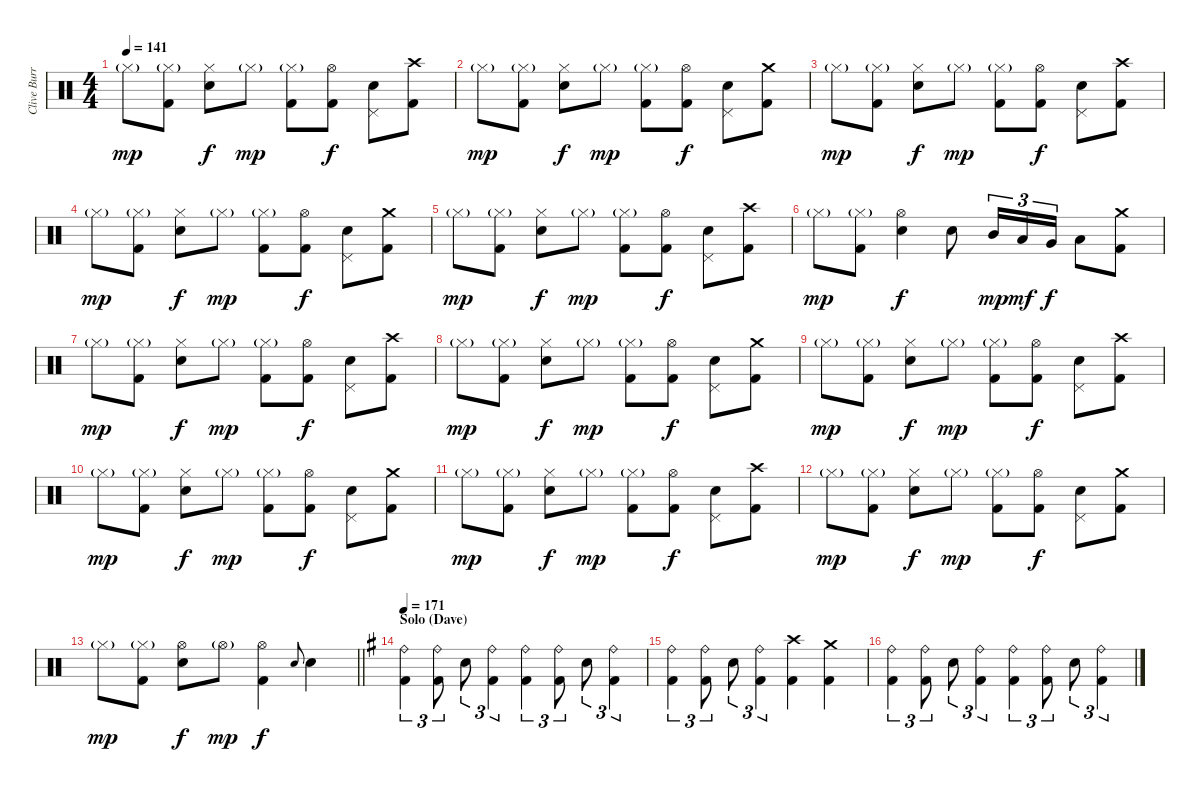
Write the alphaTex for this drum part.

\track ("Clive Burr" "Clive Burr") {instrument percussion}
\staff {score}
\articulation defaults
\ts (4 4)
\tempo 141
\clef neutral
\ks c "Hi-Hat (closed)"{g}.8{dy mp}
("Hi-Hat (closed)"{g} "Kick (hit) 2").8 ("Hi-Hat (closed)" "Snare (hit) 2").8{dy f} "Hi-Hat (closed)"{g}.8{dy mp} ("Hi-Hat (closed)"{g} "Kick (hit) 2").8 ("Hi-Hat (open)" "Kick (hit) 2").8{dy f} ("Pedal Hi-Hat (hit)" "Snare (hit) 2").8 ("Crash high (hit)" "Kick (hit) 2").8 |
"Hi-Hat (closed)"{g}.8{dy mp} ("Hi-Hat (closed)"{g} "Kick (hit) 2").8 ("Hi-Hat (closed)" "Snare (hit) 2").8{dy f} "Hi-Hat (closed)"{g}.8{dy mp} ("Hi-Hat (closed)"{g} "Kick (hit) 2").8 ("Hi-Hat (open)" "Kick (hit) 2").8{dy f} ("Pedal Hi-Hat (hit)" "Snare (hit) 2").8 ("Crash medium (hit)" "Kick (hit) 2").8 |
"Hi-Hat (closed)"{g}.8{dy mp} ("Hi-Hat (closed)"{g} "Kick (hit) 2").8 ("Hi-Hat (closed)" "Snare (hit) 2").8{dy f} "Hi-Hat (closed)"{g}.8{dy mp} ("Hi-Hat (closed)"{g} "Kick (hit) 2").8 ("Hi-Hat (open)" "Kick (hit) 2").8{dy f} ("Pedal Hi-Hat (hit)" "Snare (hit) 2").8 ("Crash high (hit)" "Kick (hit) 2").8 |
"Hi-Hat (closed)"{g}.8{dy mp} ("Hi-Hat (closed)"{g} "Kick (hit) 2").8 ("Hi-Hat (closed)" "Snare (hit) 2").8{dy f} "Hi-Hat (closed)"{g}.8{dy mp} ("Hi-Hat (closed)"{g} "Kick (hit) 2").8 ("Hi-Hat (open)" "Kick (hit) 2").8{dy f} ("Pedal Hi-Hat (hit)" "Snare (hit) 2").8 ("Crash medium (hit)" "Kick (hit) 2").8 |
"Hi-Hat (closed)"{g}.8{dy mp} ("Hi-Hat (closed)"{g} "Kick (hit) 2").8 ("Hi-Hat (closed)" "Snare (hit) 2").8{dy f} "Hi-Hat (closed)"{g}.8{dy mp} ("Hi-Hat (closed)"{g} "Kick (hit) 2").8 ("Hi-Hat (open)" "Kick (hit) 2").8{dy f} ("Pedal Hi-Hat (hit)" "Snare (hit) 2").8 ("Crash high (hit)" "Kick (hit) 2").8 |
"Hi-Hat (closed)"{g}.8{dy mp} ("Hi-Hat (closed)"{g} "Kick (hit) 2").8 ("Hi-Hat (open)" "Snare (hit) 2").4{dy f} "Snare (hit) 2".8 "Mid Tom (hit)".16{tu (3 2) dy mp} "Low Tom (hit)".16{tu (3 2) dy mf} "Very Low Tom (hit)".16{tu (3 2) dy f} "Low Floor Tom (hit)".8 ("Crash medium (hit)" "Kick (hit) 2").8 |
"Hi-Hat (closed)"{g}.8{dy mp} ("Hi-Hat (closed)"{g} "Kick (hit) 2").8 ("Hi-Hat (closed)" "Snare (hit) 2").8{dy f} "Hi-Hat (closed)"{g}.8{dy mp} ("Hi-Hat (closed)"{g} "Kick (hit) 2").8 ("Hi-Hat (open)" "Kick (hit) 2").8{dy f} ("Pedal Hi-Hat (hit)" "Snare (hit) 2").8 ("Crash high (hit)" "Kick (hit) 2").8 |
"Hi-Hat (closed)"{g}.8{dy mp} ("Hi-Hat (closed)"{g} "Kick (hit) 2").8 ("Hi-Hat (closed)" "Snare (hit) 2").8{dy f} "Hi-Hat (closed)"{g}.8{dy mp} ("Hi-Hat (closed)"{g} "Kick (hit) 2").8 ("Hi-Hat (open)" "Kick (hit) 2").8{dy f} ("Pedal Hi-Hat (hit)" "Snare (hit) 2").8 ("Crash medium (hit)" "Kick (hit) 2").8 |
"Hi-Hat (closed)"{g}.8{dy mp} ("Hi-Hat (closed)"{g} "Kick (hit) 2").8 ("Hi-Hat (closed)" "Snare (hit) 2").8{dy f} "Hi-Hat (closed)"{g}.8{dy mp} ("Hi-Hat (closed)"{g} "Kick (hit) 2").8 ("Hi-Hat (open)" "Kick (hit) 2").8{dy f} ("Pedal Hi-Hat (hit)" "Snare (hit) 2").8 ("Crash high (hit)" "Kick (hit) 2").8 |
"Hi-Hat (closed)"{g}.8{dy mp} ("Hi-Hat (closed)"{g} "Kick (hit) 2").8 ("Hi-Hat (closed)" "Snare (hit) 2").8{dy f} "Hi-Hat (closed)"{g}.8{dy mp} ("Hi-Hat (closed)"{g} "Kick (hit) 2").8 ("Hi-Hat (open)" "Kick (hit) 2").8{dy f} ("Pedal Hi-Hat (hit)" "Snare (hit) 2").8 ("Crash medium (hit)" "Kick (hit) 2").8 |
"Hi-Hat (closed)"{g}.8{dy mp} ("Hi-Hat (closed)"{g} "Kick (hit) 2").8 ("Hi-Hat (closed)" "Snare (hit) 2").8{dy f} "Hi-Hat (closed)"{g}.8{dy mp} ("Hi-Hat (closed)"{g} "Kick (hit) 2").8 ("Hi-Hat (open)" "Kick (hit) 2").8{dy f} ("Pedal Hi-Hat (hit)" "Snare (hit) 2").8 ("Crash high (hit)" "Kick (hit) 2").8 |
"Hi-Hat (closed)"{g}.8{dy mp} ("Hi-Hat (closed)"{g} "Kick (hit) 2").8 ("Hi-Hat (closed)" "Snare (hit) 2").8{dy f} "Hi-Hat (closed)"{g}.8{dy mp} ("Hi-Hat (closed)"{g} "Kick (hit) 2").8 ("Hi-Hat (open)" "Kick (hit) 2").8{dy f} ("Pedal Hi-Hat (hit)" "Snare (hit) 2").8 ("Crash medium (hit)" "Kick (hit) 2").8 |
\barLineRight lightlight "Hi-Hat (closed)"{g}.8{dy mp}
("Hi-Hat (closed)"{g} "Kick (hit) 2").8 ("Hi-Hat (open)" "Snare (hit) 2").8{dy f} "Hi-Hat (open)"{g}.8{dy mp} ("Hi-Hat (open)" "Kick (hit) 2").4{dy f} "Snare (hit) 2".8{gr onbeat} "Snare (hit) 2".4 |
\section ("" "Solo (Dave)")
\tempo 171
\ks eminor
("Ride (bell)" "Kick (hit) 2").4{tu (3 2)} ("Ride (bell)" "Kick (hit) 2").8{tu (3 2)} "Snare (hit) 2".8{tu (3 2)} ("Ride (bell)" "Kick (hit) 2").4{tu (3 2)} ("Ride (bell)" "Kick (hit) 2").4{tu (3 2)} ("Ride (bell)" "Kick (hit) 2").8{tu (3 2)} "Snare (hit) 2".8{tu (3 2)} ("Ride (bell)" "Kick (hit) 2").4{tu (3 2)} |
("Ride (bell)" "Kick (hit) 2").4{tu (3 2)} ("Ride (bell)" "Kick (hit) 2").8{tu (3 2)} "Snare (hit) 2".8{tu (3 2)} ("Ride (bell)" "Kick (hit) 2").4{tu (3 2)} ("Crash high (hit)" "Kick (hit) 2").4 ("Crash medium (hit)" "Kick (hit) 2").4 |
("Ride (bell)" "Kick (hit) 2").4{tu (3 2)} ("Ride (bell)" "Kick (hit) 2").8{tu (3 2)} "Snare (hit) 2".8{tu (3 2)} ("Ride (bell)" "Kick (hit) 2").4{tu (3 2)} ("Ride (bell)" "Kick (hit) 2").4{tu (3 2)} ("Ride (bell)" "Kick (hit) 2").8{tu (3 2)} "Snare (hit) 2".8{tu (3 2)} ("Ride (bell)" "Kick (hit) 2").4{tu (3 2)}
